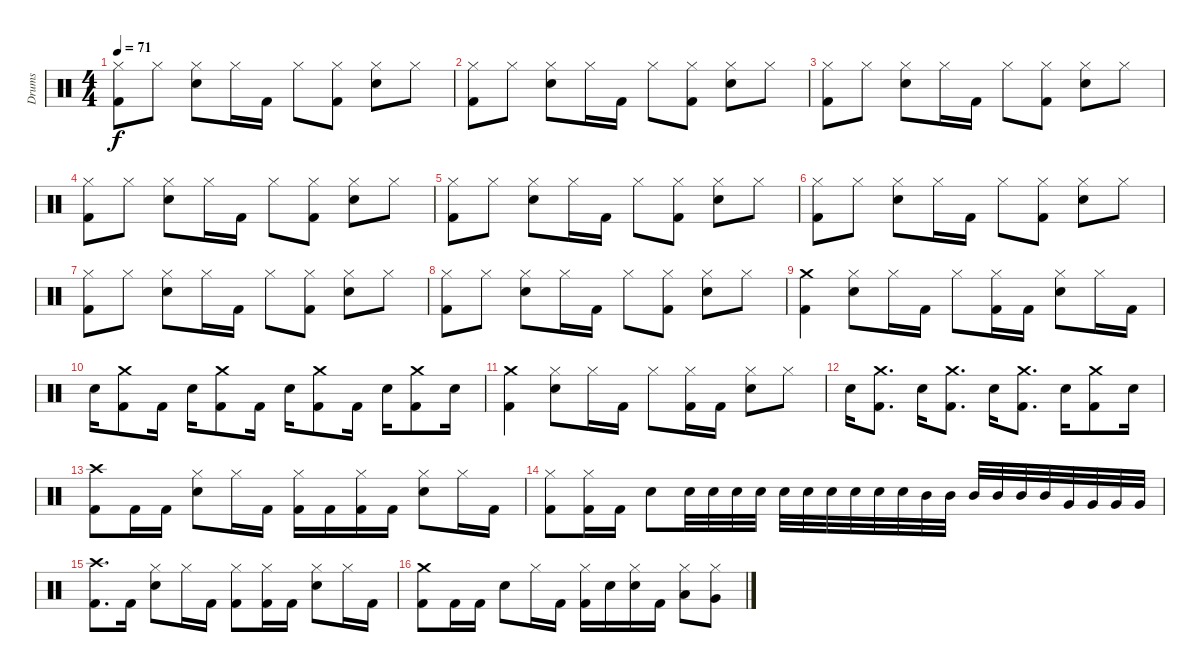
\track ("Drums" "Drums") {instrument percussion}
\staff {score}
\articulation defaults
\ts (4 4)
\tempo 71
\clef neutral
\ks c
("Hi-Hat (closed)" "Kick (hit) 2").8{dy f} "Hi-Hat (closed)".8 ("Hi-Hat (closed)" "Snare (hit) 2").8 "Hi-Hat (closed)".16 "Kick (hit) 2".16 "Hi-Hat (closed)".8 ("Kick (hit) 2" "Hi-Hat (closed)").8 ("Hi-Hat (closed)" "Snare (hit) 2").8 "Hi-Hat (closed)".8 |
("Hi-Hat (closed)" "Kick (hit) 2").8 "Hi-Hat (closed)".8 ("Hi-Hat (closed)" "Snare (hit) 2").8 "Hi-Hat (closed)".16 "Kick (hit) 2".16 "Hi-Hat (closed)".8 ("Kick (hit) 2" "Hi-Hat (closed)").8 ("Hi-Hat (closed)" "Snare (hit) 2").8 "Hi-Hat (closed)".8 |
("Hi-Hat (closed)" "Kick (hit) 2").8 "Hi-Hat (closed)".8 ("Hi-Hat (closed)" "Snare (hit) 2").8 "Hi-Hat (closed)".16 "Kick (hit) 2".16 "Hi-Hat (closed)".8 ("Kick (hit) 2" "Hi-Hat (closed)").8 ("Hi-Hat (closed)" "Snare (hit) 2").8 "Hi-Hat (closed)".8 |
("Hi-Hat (closed)" "Kick (hit) 2").8 "Hi-Hat (closed)".8 ("Hi-Hat (closed)" "Snare (hit) 2").8 "Hi-Hat (closed)".16 "Kick (hit) 2".16 "Hi-Hat (closed)".8 ("Kick (hit) 2" "Hi-Hat (closed)").8 ("Hi-Hat (closed)" "Snare (hit) 2").8 "Hi-Hat (closed)".8 |
("Hi-Hat (closed)" "Kick (hit) 2").8 "Hi-Hat (closed)".8 ("Hi-Hat (closed)" "Snare (hit) 2").8 "Hi-Hat (closed)".16 "Kick (hit) 2".16 "Hi-Hat (closed)".8 ("Kick (hit) 2" "Hi-Hat (closed)").8 ("Hi-Hat (closed)" "Snare (hit) 2").8 "Hi-Hat (closed)".8 |
("Hi-Hat (closed)" "Kick (hit) 2").8 "Hi-Hat (closed)".8 ("Hi-Hat (closed)" "Snare (hit) 2").8 "Hi-Hat (closed)".16 "Kick (hit) 2".16 "Hi-Hat (closed)".8 ("Kick (hit) 2" "Hi-Hat (closed)").8 ("Hi-Hat (closed)" "Snare (hit) 2").8 "Hi-Hat (closed)".8 |
("Hi-Hat (closed)" "Kick (hit) 2").8 "Hi-Hat (closed)".8 ("Hi-Hat (closed)" "Snare (hit) 2").8 "Hi-Hat (closed)".16 "Kick (hit) 2".16 "Hi-Hat (closed)".8 ("Kick (hit) 2" "Hi-Hat (closed)").8 ("Hi-Hat (closed)" "Snare (hit) 2").8 "Hi-Hat (closed)".8 |
("Hi-Hat (closed)" "Kick (hit) 2").8 "Hi-Hat (closed)".8 ("Hi-Hat (closed)" "Snare (hit) 2").8 "Hi-Hat (closed)".16 "Kick (hit) 2".16 "Hi-Hat (closed)".8 ("Kick (hit) 2" "Hi-Hat (closed)").8 ("Hi-Hat (closed)" "Snare (hit) 2").8 "Hi-Hat (closed)".8 |
("Crash medium (hit)" "Kick (hit) 2").4 ("Snare (hit) 2" "Hi-Hat (closed)").8 "Hi-Hat (closed)".16 "Kick (hit) 2".16 "Hi-Hat (closed)".8 ("Hi-Hat (closed)" "Kick (hit) 2").16 "Kick (hit) 2".16 ("Hi-Hat (closed)" "Snare (hit) 2").8 "Hi-Hat (closed)".16 "Kick (hit) 2".16 |
"Snare (hit) 2".16 ("Crash medium (hit)" "Kick (hit) 2").8 "Kick (hit) 2".16 "Snare (hit) 2".16 ("Crash medium (hit)" "Kick (hit) 2").8 "Kick (hit) 2".16 "Snare (hit) 2".16 ("Crash medium (hit)" "Kick (hit) 2").8 "Kick (hit) 2".16 "Snare (hit) 2".16 ("Crash medium (hit)" "Kick (hit) 2").8 "Snare (hit) 2".16 |
("Kick (hit) 2" "Crash medium (hit)").4 ("Hi-Hat (closed)" "Snare (hit) 2").8 "Hi-Hat (closed)".16 "Kick (hit) 2".16 "Hi-Hat (closed)".8 ("Kick (hit) 2" "Hi-Hat (closed)").16 "Kick (hit) 2".16 ("Hi-Hat (closed)" "Snare (hit) 2").8 "Hi-Hat (closed)".8 |
"Snare (hit) 2".16 ("Crash medium (hit)" "Kick (hit) 2").8{d} "Snare (hit) 2".16 ("Crash medium (hit)" "Kick (hit) 2").8{d} "Snare (hit) 2".16 ("Crash medium (hit)" "Kick (hit) 2").8{d} "Snare (hit) 2".16 ("Kick (hit) 2" "Crash medium (hit)").8 "Snare (hit) 2".16 |
("Kick (hit) 2" "Crash high (hit)").8 "Kick (hit) 2".16 "Kick (hit) 2".16 ("Snare (hit) 2" "Hi-Hat (closed)").8 "Hi-Hat (closed)".16 "Kick (hit) 2".16 ("Hi-Hat (closed)" "Kick (hit) 2").16 "Kick (hit) 2".16 ("Hi-Hat (closed)" "Kick (hit) 2").16 "Kick (hit) 2".16 ("Hi-Hat (closed)" "Snare (hit) 2").8 "Hi-Hat (closed)".16 "Kick (hit) 2".16 |
("Hi-Hat (closed)" "Kick (hit) 2").8 ("Hi-Hat (closed)" "Kick (hit) 2").16 "Kick (hit) 2".16 "Snare (hit) 2".8 "Snare (hit) 2".32 "Snare (hit) 2".32 "Snare (hit) 2".32 "Snare (hit) 2".32 "Snare (hit) 2".32 "Snare (hit) 2".32 "Snare (hit) 2".32 "Snare (hit) 2".32 "Snare (hit) 2".32 "Snare (hit) 2".32 "Mid Tom (hit)".32 "Mid Tom (hit)".32 "Mid Tom (hit)".32 "Mid Tom (hit)".32 "Mid Tom (hit)".32 "Mid Tom (hit)".32 "Very Low Tom (hit)".32 "Very Low Tom (hit)".32 "Very Low Tom (hit)".32 "Very Low Tom (hit)".32 |
("Crash high (hit)" "Kick (hit) 2").8{d} "Kick (hit) 2".16 ("Snare (hit) 2" "Hi-Hat (closed)").8 "Hi-Hat (closed)".16 "Kick (hit) 2".16 ("Hi-Hat (closed)" "Kick (hit) 2").8 ("Kick (hit) 2" "Hi-Hat (closed)").16 "Kick (hit) 2".16 ("Snare (hit) 2" "Hi-Hat (closed)").8 "Hi-Hat (closed)".16 "Kick (hit) 2".16 |
("Crash medium (hit)" "Kick (hit) 2").8 "Kick (hit) 2".16 "Kick (hit) 2".16 "Snare (hit) 2".8 "Hi-Hat (closed)".16 "Kick (hit) 2".16 ("Hi-Hat (closed)" "Kick (hit) 2").16 "Snare (hit) 2".16 ("Hi-Hat (closed)" "Snare (hit) 2").16 "Kick (hit) 2".16 ("Hi-Hat (closed)" "Low Tom (hit)").8 ("Hi-Hat (closed)" "Very Low Tom (hit)").8
